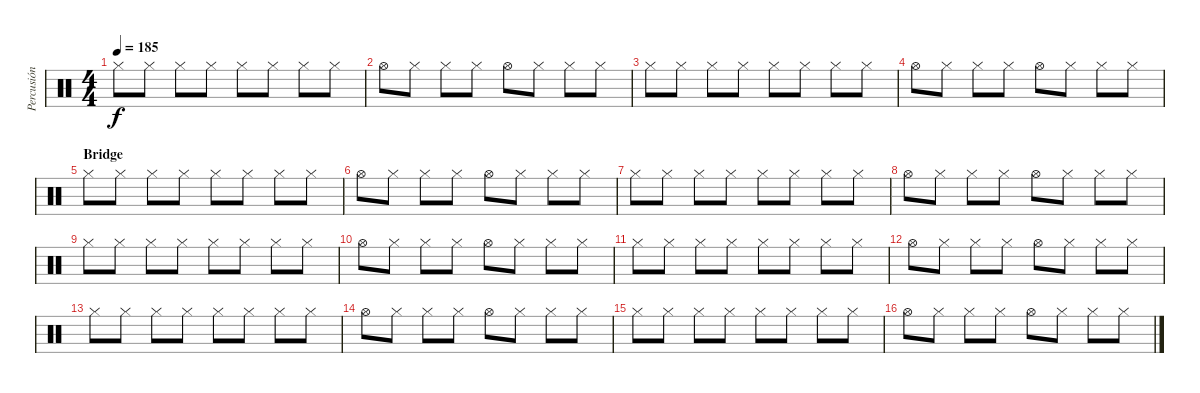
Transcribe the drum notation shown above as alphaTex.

\track ("Percusión" "Percusión") {instrument percussion}
\staff {score}
\articulation defaults
\ts (4 4)
\tempo 185
\clef neutral
\ks c "Hi-Hat (closed)".8{dy f} "Hi-Hat (closed)".8 "Hi-Hat (closed)".8 "Hi-Hat (closed)".8 "Hi-Hat (closed)".8 "Hi-Hat (closed)".8 "Hi-Hat (closed)".8 "Hi-Hat (closed)".8
|
"Hi-Hat (open)".8 "Hi-Hat (closed)".8 "Hi-Hat (closed)".8 "Hi-Hat (closed)".8 "Hi-Hat (open)".8 "Hi-Hat (closed)".8 "Hi-Hat (closed)".8 "Hi-Hat (closed)".8 |
"Hi-Hat (closed)".8 "Hi-Hat (closed)".8 "Hi-Hat (closed)".8 "Hi-Hat (closed)".8 "Hi-Hat (closed)".8 "Hi-Hat (closed)".8 "Hi-Hat (closed)".8 "Hi-Hat (closed)".8 |
"Hi-Hat (open)".8 "Hi-Hat (closed)".8 "Hi-Hat (closed)".8 "Hi-Hat (closed)".8 "Hi-Hat (open)".8 "Hi-Hat (closed)".8 "Hi-Hat (closed)".8 "Hi-Hat (closed)".8 |
\section ("" "Bridge")
"Hi-Hat (closed)".8 "Hi-Hat (closed)".8 "Hi-Hat (closed)".8 "Hi-Hat (closed)".8 "Hi-Hat (closed)".8 "Hi-Hat (closed)".8 "Hi-Hat (closed)".8 "Hi-Hat (closed)".8 |
"Hi-Hat (open)".8 "Hi-Hat (closed)".8 "Hi-Hat (closed)".8 "Hi-Hat (closed)".8 "Hi-Hat (open)".8 "Hi-Hat (closed)".8 "Hi-Hat (closed)".8 "Hi-Hat (closed)".8 |
"Hi-Hat (closed)".8 "Hi-Hat (closed)".8 "Hi-Hat (closed)".8 "Hi-Hat (closed)".8 "Hi-Hat (closed)".8 "Hi-Hat (closed)".8 "Hi-Hat (closed)".8 "Hi-Hat (closed)".8 |
"Hi-Hat (open)".8 "Hi-Hat (closed)".8 "Hi-Hat (closed)".8 "Hi-Hat (closed)".8 "Hi-Hat (open)".8 "Hi-Hat (closed)".8 "Hi-Hat (closed)".8 "Hi-Hat (closed)".8 |
"Hi-Hat (closed)".8 "Hi-Hat (closed)".8 "Hi-Hat (closed)".8 "Hi-Hat (closed)".8 "Hi-Hat (closed)".8 "Hi-Hat (closed)".8 "Hi-Hat (closed)".8 "Hi-Hat (closed)".8 |
"Hi-Hat (open)".8 "Hi-Hat (closed)".8 "Hi-Hat (closed)".8 "Hi-Hat (closed)".8 "Hi-Hat (open)".8 "Hi-Hat (closed)".8 "Hi-Hat (closed)".8 "Hi-Hat (closed)".8 |
"Hi-Hat (closed)".8 "Hi-Hat (closed)".8 "Hi-Hat (closed)".8 "Hi-Hat (closed)".8 "Hi-Hat (closed)".8 "Hi-Hat (closed)".8 "Hi-Hat (closed)".8 "Hi-Hat (closed)".8 |
"Hi-Hat (open)".8 "Hi-Hat (closed)".8 "Hi-Hat (closed)".8 "Hi-Hat (closed)".8 "Hi-Hat (open)".8 "Hi-Hat (closed)".8 "Hi-Hat (closed)".8 "Hi-Hat (closed)".8 |
"Hi-Hat (closed)".8 "Hi-Hat (closed)".8 "Hi-Hat (closed)".8 "Hi-Hat (closed)".8 "Hi-Hat (closed)".8 "Hi-Hat (closed)".8 "Hi-Hat (closed)".8 "Hi-Hat (closed)".8 |
"Hi-Hat (open)".8 "Hi-Hat (closed)".8 "Hi-Hat (closed)".8 "Hi-Hat (closed)".8 "Hi-Hat (open)".8 "Hi-Hat (closed)".8 "Hi-Hat (closed)".8 "Hi-Hat (closed)".8 |
"Hi-Hat (closed)".8 "Hi-Hat (closed)".8 "Hi-Hat (closed)".8 "Hi-Hat (closed)".8 "Hi-Hat (closed)".8 "Hi-Hat (closed)".8 "Hi-Hat (closed)".8 "Hi-Hat (closed)".8 |
"Hi-Hat (open)".8 "Hi-Hat (closed)".8 "Hi-Hat (closed)".8 "Hi-Hat (closed)".8 "Hi-Hat (open)".8 "Hi-Hat (closed)".8 "Hi-Hat (closed)".8 "Hi-Hat (closed)".8
